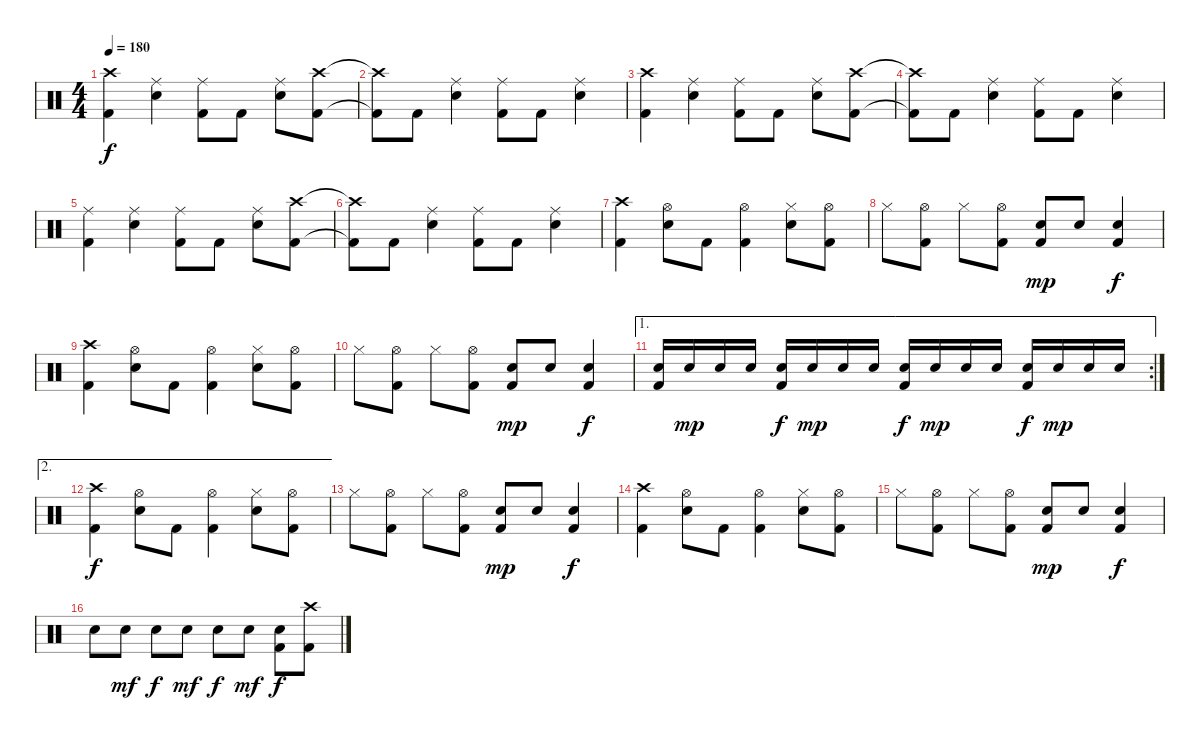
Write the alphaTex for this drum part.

\track "" {instrument percussion}
\staff {score}
\articulation defaults
\ts (4 4)
\tempo 180
\clef neutral
\ks c
("Crash high (hit)" "Kick (hit) 2").4{dy f} ("Ride (middle)" "Electric Snare (hit)").4 ("Ride (middle)" "Kick (hit) 2").8 "Kick (hit) 2".8 ("Ride (middle)" "Electric Snare (hit)").8 ("Crash high (hit)" "Kick (hit) 2").8 |
("Crash high (hit)"{t} "Kick (hit) 2"{t}).8 "Kick (hit) 2".8 ("Ride (middle)" "Electric Snare (hit)").4 ("Ride (middle)" "Kick (hit) 2").8 "Kick (hit) 2".8 ("Ride (middle)" "Electric Snare (hit)").4 |
("Crash high (hit)" "Kick (hit) 2").4 ("Ride (middle)" "Electric Snare (hit)").4 ("Ride (middle)" "Kick (hit) 2").8 "Kick (hit) 2".8 ("Ride (middle)" "Electric Snare (hit)").8 ("Crash high (hit)" "Kick (hit) 2").8 |
("Crash high (hit)"{t} "Kick (hit) 2"{t}).8 "Kick (hit) 2".8 ("Ride (middle)" "Electric Snare (hit)").4 ("Ride (middle)" "Kick (hit) 2").8 "Kick (hit) 2".8 ("Ride (middle)" "Electric Snare (hit)").4 |
("Ride (middle)" "Kick (hit) 2").4 ("Ride (middle)" "Electric Snare (hit)").4 ("Ride (middle)" "Kick (hit) 2").8 "Kick (hit) 2".8 ("Ride (middle)" "Electric Snare (hit)").8 ("Crash high (hit)" "Kick (hit) 2").8 |
("Crash high (hit)"{t} "Kick (hit) 2"{t}).8 "Kick (hit) 2".8 ("Ride (middle)" "Electric Snare (hit)").4 ("Ride (middle)" "Kick (hit) 2").8 "Kick (hit) 2".8 ("Ride (middle)" "Electric Snare (hit)").4 |
("Crash high (hit)" "Kick (hit) 2").4 ("Hi-Hat (open)" "Electric Snare (hit)").8 "Kick (hit) 2".8 ("Hi-Hat (open)" "Kick (hit) 2").4 ("Hi-Hat (closed)" "Electric Snare (hit)").8 ("Hi-Hat (open)" "Kick (hit) 2").8 |
"Hi-Hat (closed)".8 ("Hi-Hat (open)" "Kick (hit) 2").8 "Hi-Hat (closed)".8 ("Hi-Hat (open)" "Kick (hit) 2").8 ("Electric Snare (hit)" "Kick (hit) 2").8{dy mp} "Electric Snare (hit)".8 ("Electric Snare (hit)" "Kick (hit) 2").4{dy f} |
("Crash high (hit)" "Kick (hit) 2").4 ("Hi-Hat (open)" "Electric Snare (hit)").8 "Kick (hit) 2".8 ("Hi-Hat (open)" "Kick (hit) 2").4 ("Hi-Hat (closed)" "Electric Snare (hit)").8 ("Hi-Hat (open)" "Kick (hit) 2").8 |
"Hi-Hat (closed)".8 ("Hi-Hat (open)" "Kick (hit) 2").8 "Hi-Hat (closed)".8 ("Hi-Hat (open)" "Kick (hit) 2").8 ("Electric Snare (hit)" "Kick (hit) 2").8{dy mp} "Electric Snare (hit)".8 ("Electric Snare (hit)" "Kick (hit) 2").4{dy f} |
\ae 1
\rc 2
("Electric Snare (hit)" "Kick (hit) 2").16 "Electric Snare (hit)".16{dy mp} "Electric Snare (hit)".16 "Electric Snare (hit)".16 ("Electric Snare (hit)" "Kick (hit) 2").16{dy f} "Electric Snare (hit)".16{dy mp} "Electric Snare (hit)".16 "Electric Snare (hit)".16 ("Electric Snare (hit)" "Kick (hit) 2").16{dy f} "Electric Snare (hit)".16{dy mp} "Electric Snare (hit)".16 "Electric Snare (hit)".16 ("Electric Snare (hit)" "Kick (hit) 2").16{dy f} "Electric Snare (hit)".16{dy mp} "Electric Snare (hit)".16 "Electric Snare (hit)".16 |
\ae 2
("Crash high (hit)" "Kick (hit) 2").4{dy f} ("Hi-Hat (open)" "Electric Snare (hit)").8{txt ""} "Kick (hit) 2".8 ("Hi-Hat (open)" "Kick (hit) 2").4 ("Hi-Hat (closed)" "Electric Snare (hit)").8 ("Hi-Hat (open)" "Kick (hit) 2").8 |
"Hi-Hat (closed)".8 ("Hi-Hat (open)" "Kick (hit) 2").8 "Hi-Hat (closed)".8 ("Hi-Hat (open)" "Kick (hit) 2").8 ("Electric Snare (hit)" "Kick (hit) 2").8{dy mp} "Electric Snare (hit)".8 ("Electric Snare (hit)" "Kick (hit) 2").4{dy f} |
("Crash high (hit)" "Kick (hit) 2").4 ("Hi-Hat (open)" "Electric Snare (hit)").8 "Kick (hit) 2".8 ("Hi-Hat (open)" "Kick (hit) 2").4 ("Hi-Hat (closed)" "Electric Snare (hit)").8 ("Hi-Hat (open)" "Kick (hit) 2").8 |
"Hi-Hat (closed)".8 ("Hi-Hat (open)" "Kick (hit) 2").8 "Hi-Hat (closed)".8 ("Hi-Hat (open)" "Kick (hit) 2").8 ("Electric Snare (hit)" "Kick (hit) 2").8{dy mp} "Electric Snare (hit)".8 ("Electric Snare (hit)" "Kick (hit) 2").4{dy f} |
"Electric Snare (hit)".8 "Electric Snare (hit)".8{dy mf} "Electric Snare (hit)".8{dy f} "Electric Snare (hit)".8{dy mf} "Electric Snare (hit)".8{dy f} "Electric Snare (hit)".8{dy mf} ("Electric Snare (hit)" "Kick (hit) 2").8{dy f} ("Crash high (hit)" "Kick (hit) 2").8
